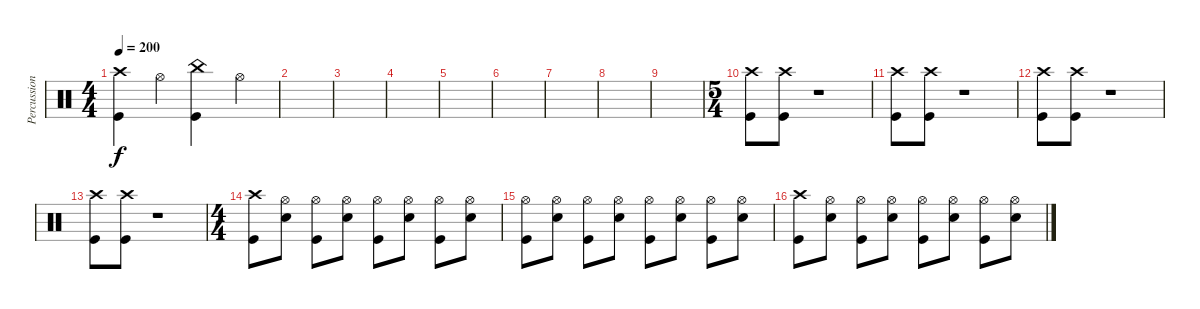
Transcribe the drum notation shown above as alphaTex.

\track ("Percussion" "Percussion") {instrument percussion}
\staff {score}
\articulation defaults
\ts (4 4)
\tempo 200
\clef neutral
\ks c
("Crash high (hit)" "Kick (hit)").4{dy f} "Hi-Hat (open)".4 ("China (hit)" "Kick (hit)").4 "Hi-Hat (open)".4 |
|
|
|
|
|
|
|
|
\ts (5 4)
("Crash high (hit)" "Kick (hit)").8 ("Crash high (hit)" "Kick (hit)").8 r.1 |
("Crash high (hit)" "Kick (hit)").8 ("Crash high (hit)" "Kick (hit)").8 r.1 |
("Crash high (hit)" "Kick (hit)").8 ("Crash high (hit)" "Kick (hit)").8 r.1 |
("Crash high (hit)" "Kick (hit)").8 ("Crash high (hit)" "Kick (hit)").8 r.1 |
\ts (4 4)
("Crash high (hit)" "Kick (hit)").8 ("Hi-Hat (open)" "Electric Snare (hit)").8 ("Hi-Hat (open)" "Kick (hit)").8 ("Hi-Hat (open)" "Electric Snare (hit)").8 ("Hi-Hat (open)" "Kick (hit)").8 ("Hi-Hat (open)" "Electric Snare (hit)").8 ("Hi-Hat (open)" "Kick (hit)").8 ("Hi-Hat (open)" "Electric Snare (hit)").8 |
("Hi-Hat (open)" "Kick (hit)").8 ("Hi-Hat (open)" "Electric Snare (hit)").8 ("Hi-Hat (open)" "Kick (hit)").8 ("Hi-Hat (open)" "Electric Snare (hit)").8 ("Hi-Hat (open)" "Kick (hit)").8 ("Hi-Hat (open)" "Electric Snare (hit)").8 ("Hi-Hat (open)" "Kick (hit)").8 ("Hi-Hat (open)" "Electric Snare (hit)").8 |
("Crash high (hit)" "Kick (hit)").8 ("Hi-Hat (open)" "Electric Snare (hit)").8 ("Hi-Hat (open)" "Kick (hit)").8 ("Hi-Hat (open)" "Electric Snare (hit)").8 ("Hi-Hat (open)" "Kick (hit)").8 ("Hi-Hat (open)" "Electric Snare (hit)").8 ("Hi-Hat (open)" "Kick (hit)").8 ("Hi-Hat (open)" "Electric Snare (hit)").8
